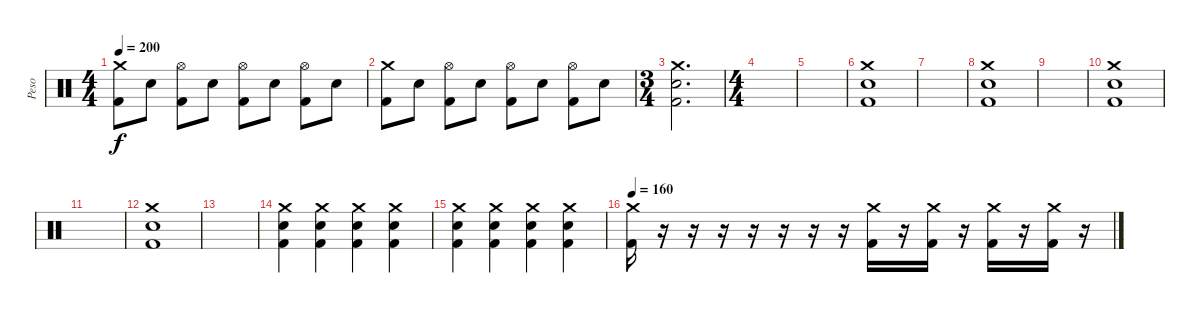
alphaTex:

\track ("Peso" "Peso") {instrument percussion}
\staff {score}
\articulation defaults
\ts (4 4)
\tempo 200
\clef neutral
\ks c
("Crash medium (hit)" "Kick (hit) 2").8{dy f} "Electric Snare (hit)".8 ("Hi-Hat (open)" "Kick (hit) 2").8 "Electric Snare (hit)".8 ("Hi-Hat (open)" "Kick (hit) 2").8 "Electric Snare (hit)".8 ("Hi-Hat (open)" "Kick (hit) 2").8 "Electric Snare (hit)".8 |
("Crash medium (hit)" "Kick (hit) 2").8 "Electric Snare (hit)".8 ("Hi-Hat (open)" "Kick (hit) 2").8 "Electric Snare (hit)".8 ("Hi-Hat (open)" "Kick (hit) 2").8 "Electric Snare (hit)".8 ("Hi-Hat (open)" "Kick (hit) 2").8 "Electric Snare (hit)".8 |
\ts (3 4)
("Crash medium (hit)" "Electric Snare (hit)" "Kick (hit) 2").2{d} |
\ts (4 4)
|
|
("Crash medium (hit)" "Electric Snare (hit)" "Kick (hit) 2").1 |
|
("Crash medium (hit)" "Electric Snare (hit)" "Kick (hit) 2").1 |
|
("Crash medium (hit)" "Electric Snare (hit)" "Kick (hit) 2").1 |
|
("Crash medium (hit)" "Electric Snare (hit)" "Kick (hit) 2").1 |
|
("Crash medium (hit)" "Electric Snare (hit)" "Kick (hit) 2").4 ("Crash medium (hit)" "Electric Snare (hit)" "Kick (hit) 2").4 ("Crash medium (hit)" "Electric Snare (hit)" "Kick (hit) 2").4 ("Crash medium (hit)" "Electric Snare (hit)" "Kick (hit) 2").4 |
("Crash medium (hit)" "Electric Snare (hit)" "Kick (hit) 2").4 ("Crash medium (hit)" "Electric Snare (hit)" "Kick (hit) 2").4 ("Crash medium (hit)" "Electric Snare (hit)" "Kick (hit) 2").4 ("Crash medium (hit)" "Electric Snare (hit)" "Kick (hit) 2").4 |
\tempo 160
("Crash medium (hit)" "Kick (hit) 2").16 r.16 r.16 r.16 r.16 r.16 r.16 r.16 ("Crash medium (hit)" "Kick (hit) 2").16 r.16 ("Crash medium (hit)" "Kick (hit) 2").16 r.16 ("Crash medium (hit)" "Kick (hit) 2").16 r.16 ("Crash medium (hit)" "Kick (hit) 2").16 r.16
